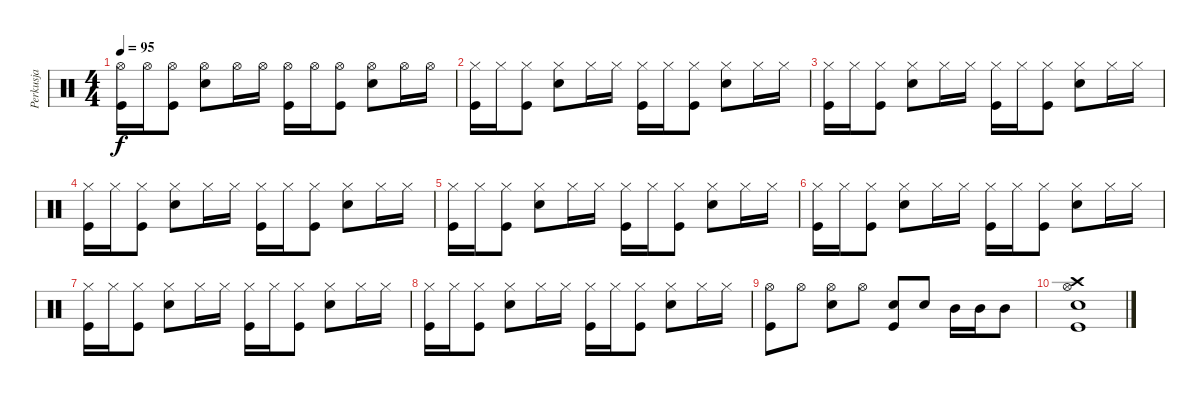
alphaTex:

\track ("Perkusja" "Perkusja") {instrument percussion}
\staff {score}
\articulation defaults
\ts (4 4)
\tempo 95
\clef neutral
\ks c
("Hi-Hat (open)" "Kick (hit)").16{dy f} "Hi-Hat (open)".16 ("Hi-Hat (open)" "Kick (hit)").8 ("Hi-Hat (open)" "Electric Snare (hit)").8 "Hi-Hat (open)".16 "Hi-Hat (open)".16 ("Hi-Hat (open)" "Kick (hit)").16 "Hi-Hat (open)".16 ("Hi-Hat (open)" "Kick (hit)").8 ("Hi-Hat (open)" "Electric Snare (hit)").8 "Hi-Hat (open)".16 "Hi-Hat (open)".16 |
("Hi-Hat (closed)" "Kick (hit)").16 "Hi-Hat (closed)".16 ("Hi-Hat (closed)" "Kick (hit)").8 ("Hi-Hat (closed)" "Electric Snare (hit)").8 "Hi-Hat (closed)".16 "Hi-Hat (closed)".16 ("Hi-Hat (closed)" "Kick (hit)").16 "Hi-Hat (closed)".16 ("Hi-Hat (closed)" "Kick (hit)").8 ("Hi-Hat (closed)" "Electric Snare (hit)").8 "Hi-Hat (closed)".16 "Hi-Hat (closed)".16 |
("Hi-Hat (closed)" "Kick (hit)").16 "Hi-Hat (closed)".16 ("Hi-Hat (closed)" "Kick (hit)").8 ("Hi-Hat (closed)" "Electric Snare (hit)").8 "Hi-Hat (closed)".16 "Hi-Hat (closed)".16 ("Hi-Hat (closed)" "Kick (hit)").16 "Hi-Hat (closed)".16 ("Hi-Hat (closed)" "Kick (hit)").8 ("Hi-Hat (closed)" "Electric Snare (hit)").8 "Hi-Hat (closed)".16 "Hi-Hat (closed)".16 |
("Hi-Hat (closed)" "Kick (hit)").16 "Hi-Hat (closed)".16 ("Hi-Hat (closed)" "Kick (hit)").8 ("Hi-Hat (closed)" "Electric Snare (hit)").8 "Hi-Hat (closed)".16 "Hi-Hat (closed)".16 ("Hi-Hat (closed)" "Kick (hit)").16 "Hi-Hat (closed)".16 ("Hi-Hat (closed)" "Kick (hit)").8 ("Hi-Hat (closed)" "Electric Snare (hit)").8 "Hi-Hat (closed)".16 "Hi-Hat (closed)".16 |
("Hi-Hat (closed)" "Kick (hit)").16 "Hi-Hat (closed)".16 ("Hi-Hat (closed)" "Kick (hit)").8 ("Hi-Hat (closed)" "Electric Snare (hit)").8 "Hi-Hat (closed)".16 "Hi-Hat (closed)".16 ("Hi-Hat (closed)" "Kick (hit)").16 "Hi-Hat (closed)".16 ("Hi-Hat (closed)" "Kick (hit)").8 ("Hi-Hat (closed)" "Electric Snare (hit)").8 "Hi-Hat (closed)".16 "Hi-Hat (closed)".16 |
("Hi-Hat (closed)" "Kick (hit)").16 "Hi-Hat (closed)".16 ("Hi-Hat (closed)" "Kick (hit)").8 ("Hi-Hat (closed)" "Electric Snare (hit)").8 "Hi-Hat (closed)".16 "Hi-Hat (closed)".16 ("Hi-Hat (closed)" "Kick (hit)").16 "Hi-Hat (closed)".16 ("Hi-Hat (closed)" "Kick (hit)").8 ("Hi-Hat (closed)" "Electric Snare (hit)").8 "Hi-Hat (closed)".16 "Hi-Hat (closed)".16 |
("Hi-Hat (closed)" "Kick (hit)").16 "Hi-Hat (closed)".16 ("Hi-Hat (closed)" "Kick (hit)").8 ("Hi-Hat (closed)" "Electric Snare (hit)").8 "Hi-Hat (closed)".16 "Hi-Hat (closed)".16 ("Hi-Hat (closed)" "Kick (hit)").16 "Hi-Hat (closed)".16 ("Hi-Hat (closed)" "Kick (hit)").8 ("Hi-Hat (closed)" "Electric Snare (hit)").8 "Hi-Hat (closed)".16 "Hi-Hat (closed)".16 |
("Hi-Hat (closed)" "Kick (hit)").16 "Hi-Hat (closed)".16 ("Hi-Hat (closed)" "Kick (hit)").8 ("Hi-Hat (closed)" "Electric Snare (hit)").8 "Hi-Hat (closed)".16 "Hi-Hat (closed)".16 ("Hi-Hat (closed)" "Kick (hit)").16 "Hi-Hat (closed)".16 ("Hi-Hat (closed)" "Kick (hit)").8 ("Hi-Hat (closed)" "Electric Snare (hit)").8 "Hi-Hat (closed)".16 "Hi-Hat (closed)".16 |
("Hi-Hat (open)" "Kick (hit)").8 "Hi-Hat (open)".8 ("Hi-Hat (open)" "Electric Snare (hit)").8 "Hi-Hat (open)".8 ("Electric Snare (hit)" "Kick (hit)").8 "Electric Snare (hit)".8 "Mid Tom (hit)".16 "Mid Tom (hit)".16 "Mid Tom (hit)".8 |
("Hi-Hat (open)" "Crash high (hit)" "Electric Snare (hit)" "Kick (hit)").1
